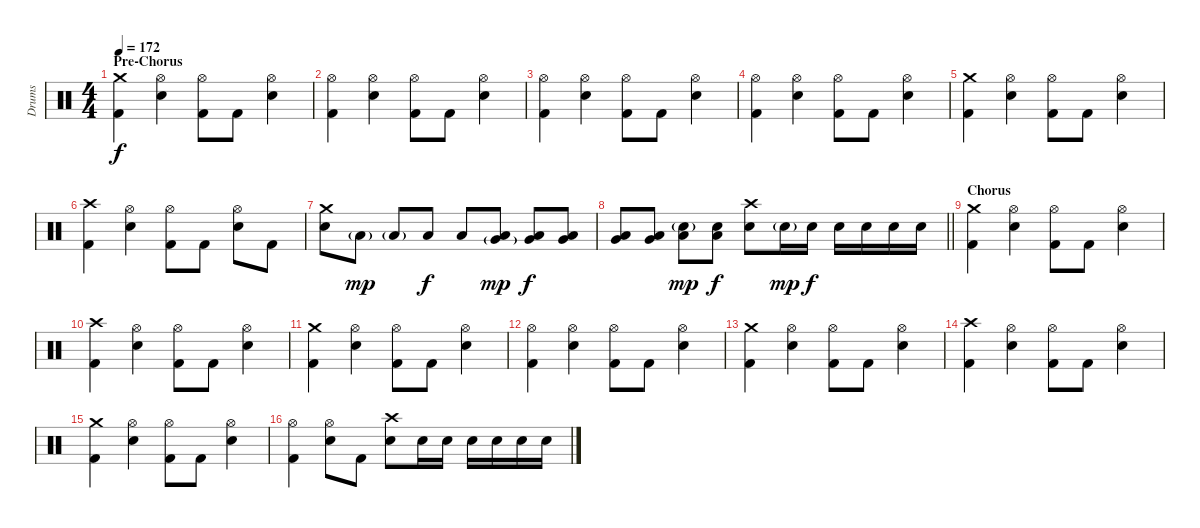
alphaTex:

\track ("Drums" "Drums") {instrument percussion}
\staff {score}
\articulation defaults
\ts (4 4)
\section ("" "Pre-Chorus")
\tempo 172
\clef neutral
\ks c
("Crash medium (hit)" "Kick (hit) 2").4{dy f} ("Hi-Hat (open)" "Electric Snare (hit)").4 ("Hi-Hat (open)" "Kick (hit) 2").8 "Kick (hit) 2".8 ("Hi-Hat (open)" "Electric Snare (hit)").4 |
("Hi-Hat (open)" "Kick (hit) 2").4 ("Hi-Hat (open)" "Electric Snare (hit)").4 ("Hi-Hat (open)" "Kick (hit) 2").8 "Kick (hit) 2".8 ("Hi-Hat (open)" "Electric Snare (hit)").4 |
("Hi-Hat (open)" "Kick (hit) 2").4 ("Hi-Hat (open)" "Electric Snare (hit)").4 ("Hi-Hat (open)" "Kick (hit) 2").8 "Kick (hit) 2".8 ("Hi-Hat (open)" "Electric Snare (hit)").4 |
("Hi-Hat (open)" "Kick (hit) 2").4 ("Hi-Hat (open)" "Electric Snare (hit)").4 ("Hi-Hat (open)" "Kick (hit) 2").8 "Kick (hit) 2".8 ("Hi-Hat (open)" "Electric Snare (hit)").4 |
("Crash medium (hit)" "Kick (hit) 2").4 ("Hi-Hat (open)" "Electric Snare (hit)").4 ("Hi-Hat (open)" "Kick (hit) 2").8 "Kick (hit) 2".8 ("Hi-Hat (open)" "Electric Snare (hit)").4 |
("Crash high (hit)" "Kick (hit) 2").4 ("Hi-Hat (open)" "Electric Snare (hit)").4 ("Hi-Hat (open)" "Kick (hit) 2").8 "Kick (hit) 2".8 ("Hi-Hat (open)" "Electric Snare (hit)").8 "Kick (hit) 2".8 |
("Crash medium (hit)" "Electric Snare (hit)").8 "Low Floor Tom (hit)"{g}.8{dy mp} "Low Floor Tom (hit)"{g}.8 "Low Floor Tom (hit)".8{dy f} "Low Floor Tom (hit)".8 ("Very Low Tom (hit)"{g} "Low Floor Tom (hit)").8{dy mp} ("Very Low Tom (hit)" "Low Floor Tom (hit)").8{dy f} ("Very Low Tom (hit)" "Low Floor Tom (hit)").8 |
\barLineRight lightlight
("Very Low Tom (hit)" "Low Tom (hit)").8 ("Very Low Tom (hit)" "Low Tom (hit)").8 ("Low Tom (hit)" "Electric Snare (hit)"{g}).8{dy mp} ("Low Tom (hit)" "Electric Snare (hit)").8{dy f} ("Crash high (hit)" "Electric Snare (hit)").8 "Electric Snare (hit)"{g}.16{dy mp} "Electric Snare (hit)".16{dy f} "Electric Snare (hit)".16 "Electric Snare (hit)".16 "Electric Snare (hit)".16 "Electric Snare (hit)".16 |
\section ("" "Chorus")
("Crash medium (hit)" "Kick (hit) 2").4 ("Hi-Hat (open)" "Electric Snare (hit)").4 ("Hi-Hat (open)" "Kick (hit) 2").8 "Kick (hit) 2".8 ("Hi-Hat (open)" "Electric Snare (hit)").4 |
("Crash high (hit)" "Kick (hit) 2").4 ("Hi-Hat (open)" "Electric Snare (hit)").4 ("Hi-Hat (open)" "Kick (hit) 2").8 "Kick (hit) 2".8 ("Hi-Hat (open)" "Electric Snare (hit)").4 |
("Crash medium (hit)" "Kick (hit) 2").4 ("Hi-Hat (open)" "Electric Snare (hit)").4 ("Hi-Hat (open)" "Kick (hit) 2").8 "Kick (hit) 2".8 ("Hi-Hat (open)" "Electric Snare (hit)").4 |
("Hi-Hat (open)" "Kick (hit) 2").4 ("Hi-Hat (open)" "Electric Snare (hit)").4 ("Hi-Hat (open)" "Kick (hit) 2").8 "Kick (hit) 2".8 ("Hi-Hat (open)" "Electric Snare (hit)").4 |
("Crash medium (hit)" "Kick (hit) 2").4 ("Hi-Hat (open)" "Electric Snare (hit)").4 ("Hi-Hat (open)" "Kick (hit) 2").8 "Kick (hit) 2".8 ("Hi-Hat (open)" "Electric Snare (hit)").4 |
("Crash high (hit)" "Kick (hit) 2").4 ("Hi-Hat (open)" "Electric Snare (hit)").4 ("Hi-Hat (open)" "Kick (hit) 2").8 "Kick (hit) 2".8 ("Hi-Hat (open)" "Electric Snare (hit)").4 |
("Crash medium (hit)" "Kick (hit) 2").4 ("Hi-Hat (open)" "Electric Snare (hit)").4 ("Hi-Hat (open)" "Kick (hit) 2").8 "Kick (hit) 2".8 ("Hi-Hat (open)" "Electric Snare (hit)").4 |
("Hi-Hat (open)" "Kick (hit) 2").4 ("Hi-Hat (open)" "Electric Snare (hit)").8 "Kick (hit) 2".8 ("Crash high (hit)" "Electric Snare (hit)").8 "Electric Snare (hit)".16 "Electric Snare (hit)".16 "Electric Snare (hit)".16 "Electric Snare (hit)".16 "Electric Snare (hit)".16 "Electric Snare (hit)".16
